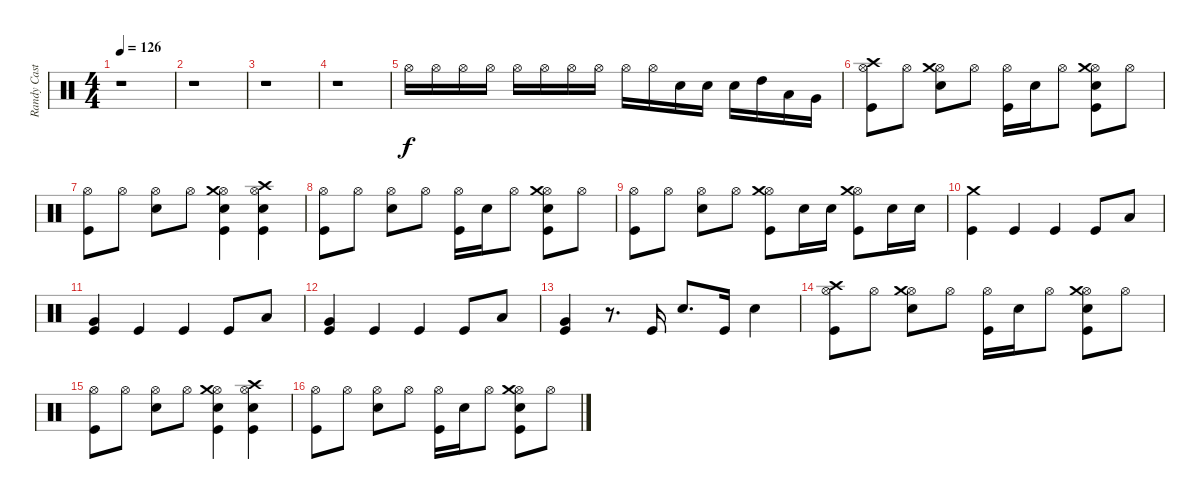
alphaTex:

\track ("Randy Castillo" "Randy Cast") {instrument percussion}
\staff {score}
\articulation defaults
\ts (4 4)
\tempo 126
\clef neutral
\ks c
r.1{dy f} |
r.1 |
r.1 |
r.1 |
"Hi-Hat (open)".16{balance 8} "Hi-Hat (open)".16 "Hi-Hat (open)".16 "Hi-Hat (open)".16 "Hi-Hat (open)".16 "Hi-Hat (open)".16 "Hi-Hat (open)".16 "Hi-Hat (open)".16 "Hi-Hat (open)".16 "Hi-Hat (open)".16 "Snare (hit) 2".16 "Snare (hit) 2".16 "Snare (hit) 2".16 "High Tom (hit)".16 "Low Tom (hit)".16 "Very Low Tom (hit)".16 |
("Kick (hit)" "Hi-Hat (open)" "Crash high (hit)").8 "Hi-Hat (open)".8 ("Snare (hit) 2" "Hi-Hat (open)" "Crash medium (hit)").8 "Hi-Hat (open)".8 ("Kick (hit)" "Hi-Hat (open)").16 "Snare (hit) 2".16 "Hi-Hat (open)".8 ("Kick (hit)" "Snare (hit) 2" "Hi-Hat (open)" "Crash medium (hit)").8 "Hi-Hat (open)".8 |
("Kick (hit)" "Hi-Hat (open)").8 "Hi-Hat (open)".8 ("Snare (hit) 2" "Hi-Hat (open)").8 "Hi-Hat (open)".8 ("Kick (hit)" "Snare (hit) 2" "Hi-Hat (open)" "Crash medium (hit)").4 ("Kick (hit)" "Snare (hit) 2" "Hi-Hat (open)" "Crash high (hit)").4 |
("Kick (hit)" "Hi-Hat (open)").8 "Hi-Hat (open)".8 ("Snare (hit) 2" "Hi-Hat (open)").8 "Hi-Hat (open)".8 ("Kick (hit)" "Hi-Hat (open)").16 "Snare (hit) 2".16 "Hi-Hat (open)".8 ("Kick (hit)" "Snare (hit) 2" "Hi-Hat (open)" "Crash medium (hit)").8 "Hi-Hat (open)".8 |
("Kick (hit)" "Hi-Hat (open)").8 "Hi-Hat (open)".8 ("Snare (hit) 2" "Hi-Hat (open)").8 "Hi-Hat (open)".8 ("Kick (hit)" "Hi-Hat (open)" "Crash medium (hit)").8 "Snare (hit) 2".16 "Snare (hit) 2".16 ("Kick (hit)" "Hi-Hat (open)" "Crash medium (hit)").8 "Snare (hit) 2".16 "Snare (hit) 2".16 |
("Kick (hit)" "Crash medium (hit)").4 "Kick (hit)".4 "Kick (hit)".4 "Kick (hit)".8 "Low Tom (hit)".8 |
("Kick (hit)" "Very Low Tom (hit)").4 "Kick (hit)".4 "Kick (hit)".4 "Kick (hit)".8 "Low Tom (hit)".8 |
("Kick (hit)" "Very Low Tom (hit)").4 "Kick (hit)".4 "Kick (hit)".4 "Kick (hit)".8 "Low Tom (hit)".8 |
("Kick (hit)" "Very Low Tom (hit)").4 r.8{d} "Kick (hit)".16 "Snare (hit) 2".8{d} "Kick (hit)".16 "Snare (hit) 2".4 |
("Kick (hit)" "Hi-Hat (open)" "Crash high (hit)").8 "Hi-Hat (open)".8 ("Snare (hit) 2" "Hi-Hat (open)" "Crash medium (hit)").8 "Hi-Hat (open)".8 ("Kick (hit)" "Hi-Hat (open)").16 "Snare (hit) 2".16 "Hi-Hat (open)".8 ("Kick (hit)" "Snare (hit) 2" "Hi-Hat (open)" "Crash medium (hit)").8 "Hi-Hat (open)".8 |
("Kick (hit)" "Hi-Hat (open)").8 "Hi-Hat (open)".8 ("Snare (hit) 2" "Hi-Hat (open)").8 "Hi-Hat (open)".8 ("Kick (hit)" "Snare (hit) 2" "Hi-Hat (open)" "Crash medium (hit)").4 ("Kick (hit)" "Snare (hit) 2" "Hi-Hat (open)" "Crash high (hit)").4 |
("Kick (hit)" "Hi-Hat (open)").8 "Hi-Hat (open)".8 ("Snare (hit) 2" "Hi-Hat (open)").8 "Hi-Hat (open)".8 ("Kick (hit)" "Hi-Hat (open)").16 "Snare (hit) 2".16 "Hi-Hat (open)".8 ("Kick (hit)" "Snare (hit) 2" "Hi-Hat (open)" "Crash medium (hit)").8 "Hi-Hat (open)".8
